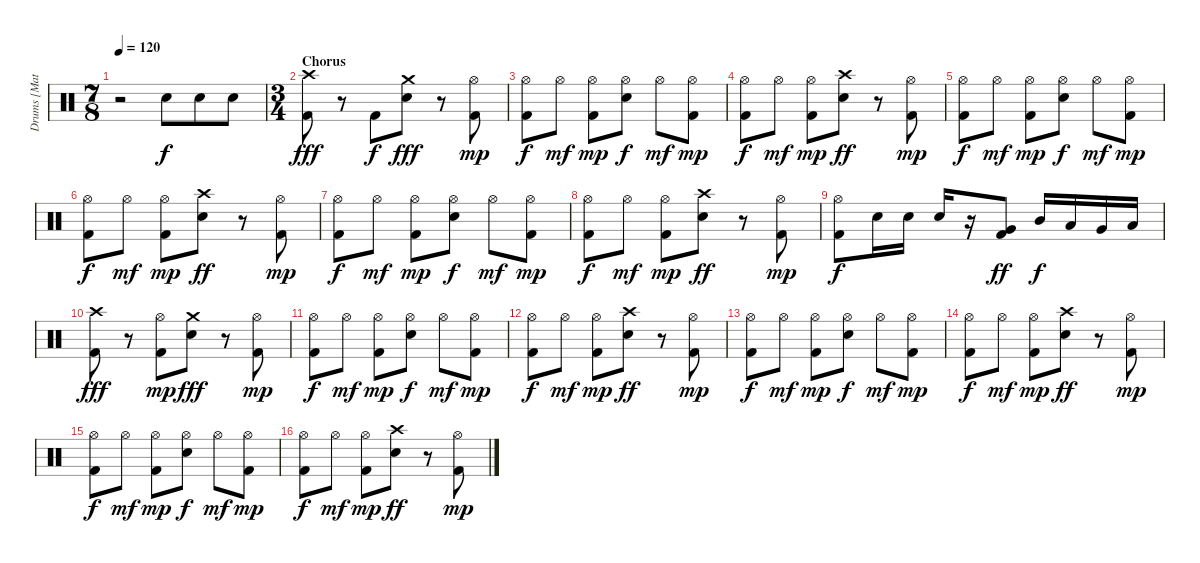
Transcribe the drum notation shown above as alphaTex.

\track ("Drums [Matt]" "Drums [Mat") {instrument percussion}
\staff {score}
\articulation defaults
\ts (7 8)
\tempo 120
\clef neutral
\ks c
r.2{dy f} "Snare (hit) 2".8 "Snare (hit) 2".8 "Snare (hit) 2".8 |
\ts (3 4)
\section ("" "Chorus")
("Crash high (hit)" "Kick (hit) 2").8{dy fff} r.8 "Kick (hit) 2".8{dy f} ("Crash medium (hit)" "Snare (hit) 2").8{dy fff} r.8 ("Hi-Hat (open)" "Kick (hit) 2").8{dy mp} |
("Hi-Hat (open)" "Kick (hit) 2").8{dy f} "Hi-Hat (open)".8{dy mf} ("Hi-Hat (open)" "Kick (hit) 2").8{dy mp} ("Hi-Hat (open)" "Snare (hit) 2").8{dy f} "Hi-Hat (open)".8{dy mf} ("Hi-Hat (open)" "Kick (hit) 2").8{dy mp} |
("Hi-Hat (open)" "Kick (hit) 2").8{dy f} "Hi-Hat (open)".8{dy mf} ("Hi-Hat (open)" "Kick (hit) 2").8{dy mp} ("Crash high (hit)" "Snare (hit) 2").8{dy ff} r.8 ("Hi-Hat (open)" "Kick (hit) 2").8{dy mp} |
("Hi-Hat (open)" "Kick (hit) 2").8{dy f} "Hi-Hat (open)".8{dy mf} ("Hi-Hat (open)" "Kick (hit) 2").8{dy mp} ("Hi-Hat (open)" "Snare (hit) 2").8{dy f} "Hi-Hat (open)".8{dy mf} ("Hi-Hat (open)" "Kick (hit) 2").8{dy mp} |
("Hi-Hat (open)" "Kick (hit) 2").8{dy f} "Hi-Hat (open)".8{dy mf} ("Hi-Hat (open)" "Kick (hit) 2").8{dy mp} ("Crash high (hit)" "Snare (hit) 2").8{dy ff} r.8 ("Hi-Hat (open)" "Kick (hit) 2").8{dy mp} |
("Hi-Hat (open)" "Kick (hit) 2").8{dy f} "Hi-Hat (open)".8{dy mf} ("Hi-Hat (open)" "Kick (hit) 2").8{dy mp} ("Hi-Hat (open)" "Snare (hit) 2").8{dy f} "Hi-Hat (open)".8{dy mf} ("Hi-Hat (open)" "Kick (hit) 2").8{dy mp} |
("Hi-Hat (open)" "Kick (hit) 2").8{dy f} "Hi-Hat (open)".8{dy mf} ("Hi-Hat (open)" "Kick (hit) 2").8{dy mp} ("Crash high (hit)" "Snare (hit) 2").8{dy ff} r.8 ("Hi-Hat (open)" "Kick (hit) 2").8{dy mp} |
("Hi-Hat (open)" "Kick (hit) 2").8{dy f} "Snare (hit) 2".16 "Snare (hit) 2".16 "Snare (hit) 2".16 r.16 ("Very Low Tom (hit)" "Kick (hit) 2").8{dy ff} "Mid Tom (hit)".16{dy f} "Low Tom (hit)".16 "Very Low Tom (hit)".16 "Low Floor Tom (hit)".16 |
("Crash high (hit)" "Kick (hit) 2").8{dy fff} r.8 ("Hi-Hat (open)" "Kick (hit) 2").8{dy mp} ("Crash medium (hit)" "Snare (hit) 2").8{dy fff} r.8 ("Hi-Hat (open)" "Kick (hit) 2").8{dy mp} |
("Hi-Hat (open)" "Kick (hit) 2").8{dy f} "Hi-Hat (open)".8{dy mf} ("Hi-Hat (open)" "Kick (hit) 2").8{dy mp} ("Hi-Hat (open)" "Snare (hit) 2").8{dy f} "Hi-Hat (open)".8{dy mf} ("Hi-Hat (open)" "Kick (hit) 2").8{dy mp} |
("Hi-Hat (open)" "Kick (hit) 2").8{dy f} "Hi-Hat (open)".8{dy mf} ("Hi-Hat (open)" "Kick (hit) 2").8{dy mp} ("Crash high (hit)" "Snare (hit) 2").8{dy ff} r.8 ("Hi-Hat (open)" "Kick (hit) 2").8{dy mp} |
("Hi-Hat (open)" "Kick (hit) 2").8{dy f} "Hi-Hat (open)".8{dy mf} ("Hi-Hat (open)" "Kick (hit) 2").8{dy mp} ("Hi-Hat (open)" "Snare (hit) 2").8{dy f} "Hi-Hat (open)".8{dy mf} ("Hi-Hat (open)" "Kick (hit) 2").8{dy mp} |
("Hi-Hat (open)" "Kick (hit) 2").8{dy f} "Hi-Hat (open)".8{dy mf} ("Hi-Hat (open)" "Kick (hit) 2").8{dy mp} ("Crash high (hit)" "Snare (hit) 2").8{dy ff} r.8 ("Hi-Hat (open)" "Kick (hit) 2").8{dy mp} |
("Hi-Hat (open)" "Kick (hit) 2").8{dy f} "Hi-Hat (open)".8{dy mf} ("Hi-Hat (open)" "Kick (hit) 2").8{dy mp} ("Hi-Hat (open)" "Snare (hit) 2").8{dy f} "Hi-Hat (open)".8{dy mf} ("Hi-Hat (open)" "Kick (hit) 2").8{dy mp} |
("Hi-Hat (open)" "Kick (hit) 2").8{dy f} "Hi-Hat (open)".8{dy mf} ("Hi-Hat (open)" "Kick (hit) 2").8{dy mp} ("Crash high (hit)" "Snare (hit) 2").8{dy ff} r.8 ("Hi-Hat (open)" "Kick (hit) 2").8{dy mp}
